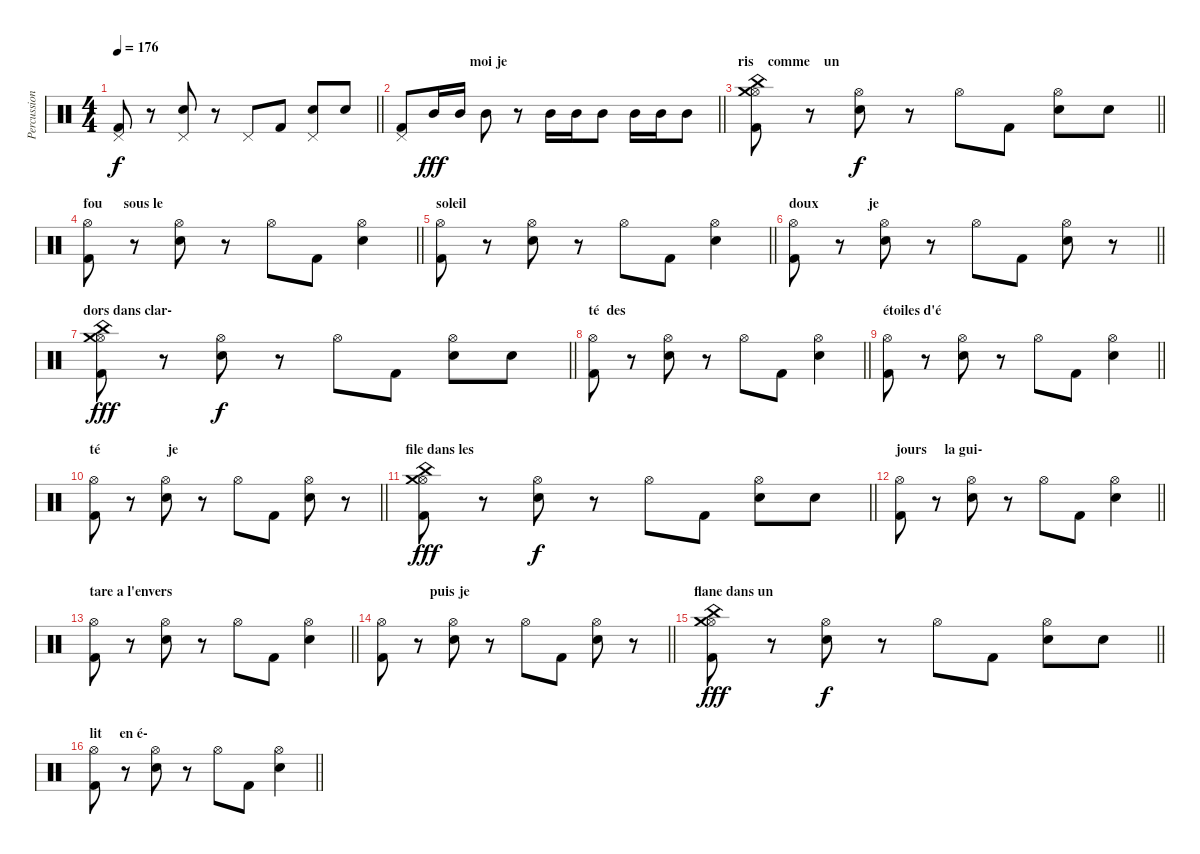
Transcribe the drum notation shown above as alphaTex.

\track ("Percussions" "Percussion") {instrument percussion}
\staff {score}
\articulation defaults
\ts (4 4)
\tempo 176
\clef neutral
\barLineRight lightlight
\ks c
("Pedal Hi-Hat (hit)" "Kick (hit) 2").8{dy f} r.8 ("Pedal Hi-Hat (hit)" "Snare (hit) 2").8 r.8 "Pedal Hi-Hat (hit)".8 "Kick (hit) 2".8 ("Pedal Hi-Hat (hit)" "Snare (hit) 2").8 "Snare (hit) 2".8 |
\section ("" "                     moi je ")
\barLineRight lightlight
("Pedal Hi-Hat (hit)" "Kick (hit) 2").8 "Mid Tom (hit)".16{dy fff} "Mid Tom (hit)".16 "Mid Tom (hit)".8 r.8 "Mid Tom (hit)".16 "Mid Tom (hit)".16 "Mid Tom (hit)".8 "Mid Tom (hit)".16 "Mid Tom (hit)".16 "Mid Tom (hit)".8 |
\section ("" "ris    comme    un ")
\barLineRight lightlight
("Hi-Hat (open)" "Kick (hit) 2" "Crash medium (hit)" "China (hit)").8 r.8 ("Hi-Hat (open)" "Snare (hit) 2").8{dy f} r.8 "Hi-Hat (open)".8 "Kick (hit) 2".8 ("Hi-Hat (open)" "Snare (hit) 2").8 "Snare (hit) 2".8 |
\section ("" "fou      sous le ")
\barLineRight lightlight
("Hi-Hat (open)" "Kick (hit) 2").8 r.8 ("Hi-Hat (open)" "Snare (hit) 2").8 r.8 "Hi-Hat (open)".8 "Kick (hit) 2".8 ("Hi-Hat (open)" "Snare (hit) 2").4 |
\section ("" "soleil ")
\barLineRight lightlight
("Hi-Hat (open)" "Kick (hit) 2").8 r.8 ("Hi-Hat (open)" "Snare (hit) 2").8 r.8 "Hi-Hat (open)".8 "Kick (hit) 2".8 ("Hi-Hat (open)" "Snare (hit) 2").4 |
\section ("" "doux              je")
\barLineRight lightlight
("Hi-Hat (open)" "Kick (hit) 2").8 r.8 ("Hi-Hat (open)" "Snare (hit) 2").8 r.8 "Hi-Hat (open)".8 "Kick (hit) 2".8 ("Hi-Hat (open)" "Snare (hit) 2").8 r.8 |
\section ("" "dors dans clar-")
\barLineRight lightlight
("Hi-Hat (open)" "Kick (hit) 2" "Crash medium (hit)" "China (hit)").8{dy fff} r.8 ("Hi-Hat (open)" "Snare (hit) 2").8{dy f} r.8 "Hi-Hat (open)".8 "Kick (hit) 2".8 ("Hi-Hat (open)" "Snare (hit) 2").8 "Snare (hit) 2".8 |
\section ("" "té  des ")
\barLineRight lightlight
("Hi-Hat (open)" "Kick (hit) 2").8 r.8 ("Hi-Hat (open)" "Snare (hit) 2").8 r.8 "Hi-Hat (open)".8 "Kick (hit) 2".8 ("Hi-Hat (open)" "Snare (hit) 2").4 |
\section ("" "étoiles d'é")
\barLineRight lightlight
("Hi-Hat (open)" "Kick (hit) 2").8 r.8 ("Hi-Hat (open)" "Snare (hit) 2").8 r.8 "Hi-Hat (open)".8 "Kick (hit) 2".8 ("Hi-Hat (open)" "Snare (hit) 2").4 |
\section ("" "té                   je")
\barLineRight lightlight
("Hi-Hat (open)" "Kick (hit) 2").8 r.8 ("Hi-Hat (open)" "Snare (hit) 2").8 r.8 "Hi-Hat (open)".8 "Kick (hit) 2".8 ("Hi-Hat (open)" "Snare (hit) 2").8 r.8 |
\section ("" "file dans les")
\barLineRight lightlight
("Hi-Hat (open)" "Kick (hit) 2" "Crash medium (hit)" "China (hit)").8{dy fff} r.8 ("Hi-Hat (open)" "Snare (hit) 2").8{dy f} r.8 "Hi-Hat (open)".8 "Kick (hit) 2".8 ("Hi-Hat (open)" "Snare (hit) 2").8 "Snare (hit) 2".8 |
\section ("" "jours     la gui-")
\barLineRight lightlight
("Hi-Hat (open)" "Kick (hit) 2").8 r.8 ("Hi-Hat (open)" "Snare (hit) 2").8 r.8 "Hi-Hat (open)".8 "Kick (hit) 2".8 ("Hi-Hat (open)" "Snare (hit) 2").4 |
\section ("" "tare a l'envers")
\barLineRight lightlight
("Hi-Hat (open)" "Kick (hit) 2").8 r.8 ("Hi-Hat (open)" "Snare (hit) 2").8 r.8 "Hi-Hat (open)".8 "Kick (hit) 2".8 ("Hi-Hat (open)" "Snare (hit) 2").4 |
\section ("" "               puis je")
\barLineRight lightlight
("Hi-Hat (open)" "Kick (hit) 2").8 r.8 ("Hi-Hat (open)" "Snare (hit) 2").8 r.8 "Hi-Hat (open)".8 "Kick (hit) 2".8 ("Hi-Hat (open)" "Snare (hit) 2").8 r.8 |
\section ("" "flane dans un ")
\barLineRight lightlight
("Hi-Hat (open)" "Kick (hit) 2" "Crash medium (hit)" "China (hit)").8{dy fff} r.8 ("Hi-Hat (open)" "Snare (hit) 2").8{dy f} r.8 "Hi-Hat (open)".8 "Kick (hit) 2".8 ("Hi-Hat (open)" "Snare (hit) 2").8 "Snare (hit) 2".8 |
\section ("" "lit     en é-")
\barLineRight lightlight
("Hi-Hat (open)" "Kick (hit) 2").8 r.8 ("Hi-Hat (open)" "Snare (hit) 2").8 r.8 "Hi-Hat (open)".8 "Kick (hit) 2".8 ("Hi-Hat (open)" "Snare (hit) 2").4
